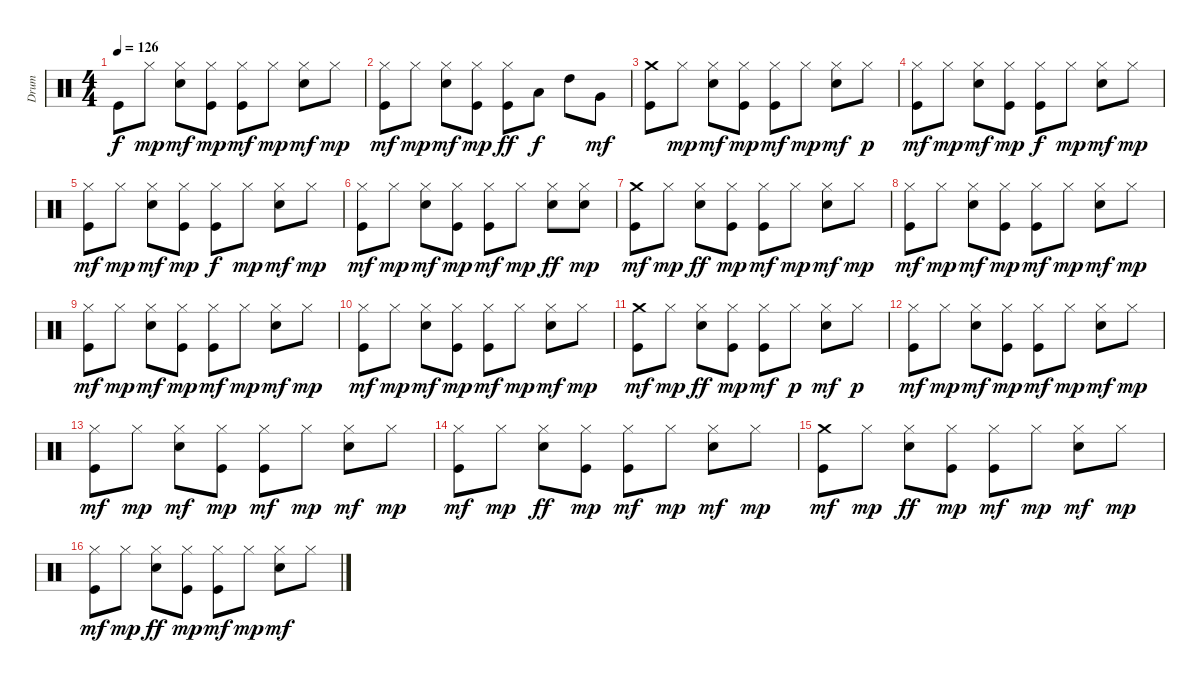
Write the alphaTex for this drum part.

\track ("Drum" "Drum") {instrument percussion}
\staff {score}
\articulation defaults
\ts (4 4)
\tempo 126
\clef neutral
\ks c "Kick (hit)".8{dy f} "Hi-Hat (closed)".8{dy mp}
("Snare (hit) 2" "Hi-Hat (closed)").8{dy mf} ("Kick (hit)" "Hi-Hat (closed)").8{dy mp} ("Kick (hit)" "Hi-Hat (closed)").8{dy mf} "Hi-Hat (closed)".8{dy mp} ("Snare (hit) 2" "Hi-Hat (closed)").8{dy mf} "Hi-Hat (closed)".8{dy mp} |
("Kick (hit)" "Hi-Hat (closed)").8{dy mf} "Hi-Hat (closed)".8{dy mp} ("Snare (hit) 2" "Hi-Hat (closed)").8{dy mf} ("Kick (hit)" "Hi-Hat (closed)").8{dy mp} ("Kick (hit)" "Hi-Hat (closed)").8{dy ff} "Low Tom (hit)".8{dy f} "High Tom (hit)".8 "Very Low Tom (hit)".8{dy mf} |
("Kick (hit)" "Crash medium (hit)").8 "Hi-Hat (closed)".8{dy mp} ("Snare (hit) 2" "Hi-Hat (closed)").8{dy mf} ("Kick (hit)" "Hi-Hat (closed)").8{dy mp} ("Kick (hit)" "Hi-Hat (closed)").8{dy mf} "Hi-Hat (closed)".8{dy mp} ("Snare (hit) 2" "Hi-Hat (closed)").8{dy mf} "Hi-Hat (closed)".8{dy p} |
("Kick (hit)" "Hi-Hat (closed)").8{dy mf} "Hi-Hat (closed)".8{dy mp} ("Snare (hit) 2" "Hi-Hat (closed)").8{dy mf} ("Kick (hit)" "Hi-Hat (closed)").8{dy mp} ("Kick (hit)" "Hi-Hat (closed)").8{dy f} "Hi-Hat (closed)".8{dy mp} ("Snare (hit) 2" "Hi-Hat (closed)").8{dy mf} "Hi-Hat (closed)".8{dy mp} |
("Kick (hit)" "Hi-Hat (closed)").8{dy mf} "Hi-Hat (closed)".8{dy mp} ("Snare (hit) 2" "Hi-Hat (closed)").8{dy mf} ("Kick (hit)" "Hi-Hat (closed)").8{dy mp} ("Kick (hit)" "Hi-Hat (closed)").8{dy f} "Hi-Hat (closed)".8{dy mp} ("Snare (hit) 2" "Hi-Hat (closed)").8{dy mf} "Hi-Hat (closed)".8{dy mp} |
("Kick (hit)" "Hi-Hat (closed)").8{dy mf} "Hi-Hat (closed)".8{dy mp} ("Snare (hit) 2" "Hi-Hat (closed)").8{dy mf} ("Kick (hit)" "Hi-Hat (closed)").8{dy mp} ("Kick (hit)" "Hi-Hat (closed)").8{dy mf} "Hi-Hat (closed)".8{dy mp} ("Snare (hit) 2" "Hi-Hat (closed)").8{dy ff} ("Snare (hit) 2" "Hi-Hat (closed)").8{dy mp} |
("Kick (hit)" "Crash medium (hit)").8{dy mf} "Hi-Hat (closed)".8{dy mp} ("Snare (hit) 2" "Hi-Hat (closed)").8{dy ff} ("Kick (hit)" "Hi-Hat (closed)").8{dy mp} ("Kick (hit)" "Hi-Hat (closed)").8{dy mf} "Hi-Hat (closed)".8{dy mp} ("Snare (hit) 2" "Hi-Hat (closed)").8{dy mf} "Hi-Hat (closed)".8{dy mp} |
("Kick (hit)" "Hi-Hat (closed)").8{dy mf} "Hi-Hat (closed)".8{dy mp} ("Snare (hit) 2" "Hi-Hat (closed)").8{dy mf} ("Kick (hit)" "Hi-Hat (closed)").8{dy mp} ("Kick (hit)" "Hi-Hat (closed)").8{dy mf} "Hi-Hat (closed)".8{dy mp} ("Snare (hit) 2" "Hi-Hat (closed)").8{dy mf} "Hi-Hat (closed)".8{dy mp} |
("Kick (hit)" "Hi-Hat (closed)").8{dy mf} "Hi-Hat (closed)".8{dy mp} ("Snare (hit) 2" "Hi-Hat (closed)").8{dy mf} ("Kick (hit)" "Hi-Hat (closed)").8{dy mp} ("Kick (hit)" "Hi-Hat (closed)").8{dy mf} "Hi-Hat (closed)".8{dy mp} ("Snare (hit) 2" "Hi-Hat (closed)").8{dy mf} "Hi-Hat (closed)".8{dy mp} |
("Kick (hit)" "Hi-Hat (closed)").8{dy mf} "Hi-Hat (closed)".8{dy mp} ("Snare (hit) 2" "Hi-Hat (closed)").8{dy mf} ("Kick (hit)" "Hi-Hat (closed)").8{dy mp} ("Kick (hit)" "Hi-Hat (closed)").8{dy mf} "Hi-Hat (closed)".8{dy mp} ("Snare (hit) 2" "Hi-Hat (closed)").8{dy mf} "Hi-Hat (closed)".8{dy mp} |
("Kick (hit)" "Crash medium (hit)").8{dy mf} "Hi-Hat (closed)".8{dy mp} ("Snare (hit) 2" "Hi-Hat (closed)").8{dy ff} ("Kick (hit)" "Hi-Hat (closed)").8{dy mp} ("Kick (hit)" "Hi-Hat (closed)").8{dy mf} "Hi-Hat (closed)".8{dy p} ("Snare (hit) 2" "Hi-Hat (closed)").8{dy mf} "Hi-Hat (closed)".8{dy p} |
("Kick (hit)" "Hi-Hat (closed)").8{dy mf} "Hi-Hat (closed)".8{dy mp} ("Snare (hit) 2" "Hi-Hat (closed)").8{dy mf} ("Kick (hit)" "Hi-Hat (closed)").8{dy mp} ("Kick (hit)" "Hi-Hat (closed)").8{dy mf} "Hi-Hat (closed)".8{dy mp} ("Snare (hit) 2" "Hi-Hat (closed)").8{dy mf} "Hi-Hat (closed)".8{dy mp} |
("Kick (hit)" "Hi-Hat (closed)").8{dy mf} "Hi-Hat (closed)".8{dy mp} ("Snare (hit) 2" "Hi-Hat (closed)").8{dy mf} ("Kick (hit)" "Hi-Hat (closed)").8{dy mp} ("Kick (hit)" "Hi-Hat (closed)").8{dy mf} "Hi-Hat (closed)".8{dy mp} ("Snare (hit) 2" "Hi-Hat (closed)").8{dy mf} "Hi-Hat (closed)".8{dy mp} |
("Kick (hit)" "Hi-Hat (closed)").8{dy mf} "Hi-Hat (closed)".8{dy mp} ("Snare (hit) 2" "Hi-Hat (closed)").8{dy ff} ("Kick (hit)" "Hi-Hat (closed)").8{dy mp} ("Kick (hit)" "Hi-Hat (closed)").8{dy mf} "Hi-Hat (closed)".8{dy mp} ("Snare (hit) 2" "Hi-Hat (closed)").8{dy mf} "Hi-Hat (closed)".8{dy mp} |
("Kick (hit)" "Crash medium (hit)").8{dy mf} "Hi-Hat (closed)".8{dy mp} ("Snare (hit) 2" "Hi-Hat (closed)").8{dy ff} ("Kick (hit)" "Hi-Hat (closed)").8{dy mp} ("Kick (hit)" "Hi-Hat (closed)").8{dy mf} "Hi-Hat (closed)".8{dy mp} ("Snare (hit) 2" "Hi-Hat (closed)").8{dy mf} "Hi-Hat (closed)".8{dy mp} |
("Kick (hit)" "Hi-Hat (closed)").8{dy mf} "Hi-Hat (closed)".8{dy mp} ("Snare (hit) 2" "Hi-Hat (closed)").8{dy ff} ("Kick (hit)" "Hi-Hat (closed)").8{dy mp} ("Kick (hit)" "Hi-Hat (closed)").8{dy mf} "Hi-Hat (closed)".8{dy mp} ("Snare (hit) 2" "Hi-Hat (closed)").8{dy mf} "Hi-Hat (closed)".8
